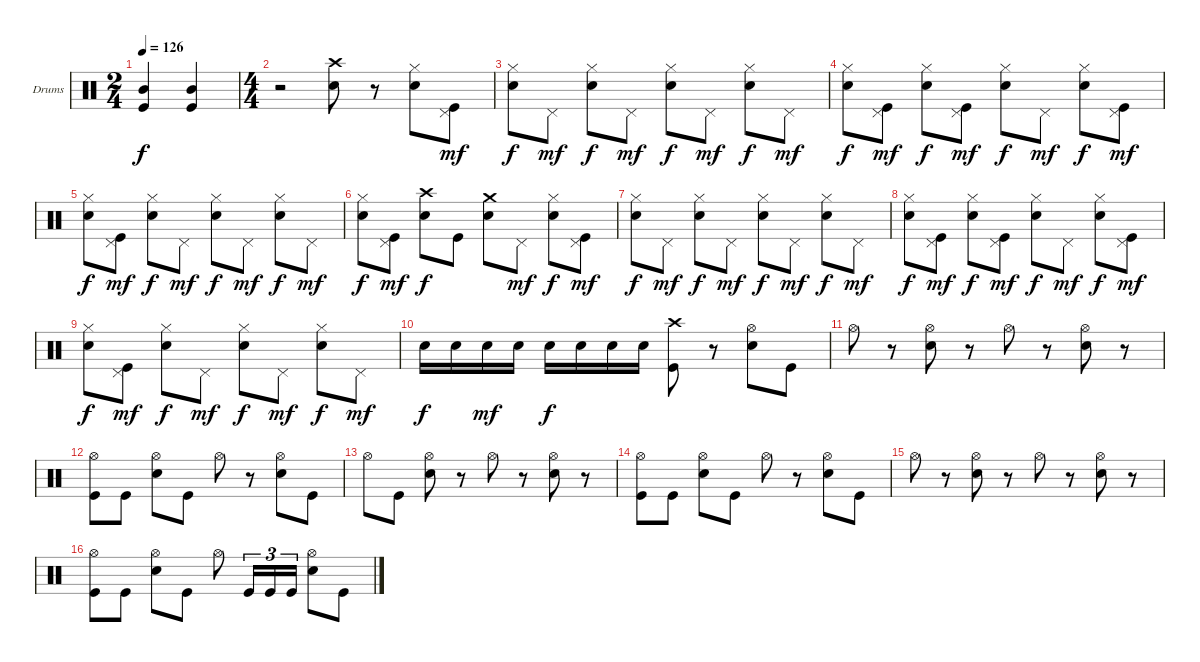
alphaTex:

\bracketExtendMode groupsimilarinstruments
\firstSystemTrackNameOrientation horizontal
\otherSystemsTrackNameOrientation horizontal
\track ("Drumkit" "Drums") {instrument percussion}
\staff {score}
\articulation defaults
\ts (2 4)
\beaming (8 2 2)
\tempo 126
\clef neutral
\ks c
("Kick (hit)" "Mid Tom (hit)").4{dy f} ("Kick (hit)" "Mid Tom (hit)").4 |
\ts (4 4)
\beaming (8 2 2 2 2)
r.2 ("Crash high (hit)" "Snare (hit) 2").8 r.8 ("Hi-Hat (closed)" "Snare (hit) 2").8 ("Pedal Hi-Hat (hit)" "Kick (hit)").8{dy mf} |
("Hi-Hat (closed)" "Snare (hit) 2").8{dy f} "Pedal Hi-Hat (hit)".8{dy mf} ("Hi-Hat (closed)" "Snare (hit) 2").8{dy f} "Pedal Hi-Hat (hit)".8{dy mf} ("Hi-Hat (closed)" "Snare (hit) 2").8{dy f} "Pedal Hi-Hat (hit)".8{dy mf} ("Hi-Hat (closed)" "Snare (hit) 2").8{dy f} "Pedal Hi-Hat (hit)".8{dy mf} |
("Hi-Hat (closed)" "Snare (hit) 2").8{dy f} ("Pedal Hi-Hat (hit)" "Kick (hit)").8{dy mf} ("Hi-Hat (closed)" "Snare (hit) 2").8{dy f} ("Pedal Hi-Hat (hit)" "Kick (hit)").8{dy mf} ("Hi-Hat (closed)" "Snare (hit) 2").8{dy f} "Pedal Hi-Hat (hit)".8{dy mf} ("Hi-Hat (closed)" "Snare (hit) 2").8{dy f} ("Pedal Hi-Hat (hit)" "Kick (hit)").8{dy mf} |
("Hi-Hat (closed)" "Snare (hit) 2").8{dy f} ("Pedal Hi-Hat (hit)" "Kick (hit)").8{dy mf} ("Hi-Hat (closed)" "Snare (hit) 2").8{dy f} "Pedal Hi-Hat (hit)".8{dy mf} ("Hi-Hat (closed)" "Snare (hit) 2").8{dy f} "Pedal Hi-Hat (hit)".8{dy mf} ("Hi-Hat (closed)" "Snare (hit) 2").8{dy f} "Pedal Hi-Hat (hit)".8{dy mf} |
("Hi-Hat (closed)" "Snare (hit) 2").8{dy f} ("Pedal Hi-Hat (hit)" "Kick (hit)").8{dy mf} ("Crash high (hit)" "Snare (hit) 2").8{dy f} "Kick (hit)".8 ("Crash medium (hit)" "Snare (hit) 2").8 "Pedal Hi-Hat (hit)".8{dy mf} ("Hi-Hat (closed)" "Snare (hit) 2").8{dy f} ("Pedal Hi-Hat (hit)" "Kick (hit)").8{dy mf} |
("Hi-Hat (closed)" "Snare (hit) 2").8{dy f} "Pedal Hi-Hat (hit)".8{dy mf} ("Hi-Hat (closed)" "Snare (hit) 2").8{dy f} "Pedal Hi-Hat (hit)".8{dy mf} ("Hi-Hat (closed)" "Snare (hit) 2").8{dy f} "Pedal Hi-Hat (hit)".8{dy mf} ("Hi-Hat (closed)" "Snare (hit) 2").8{dy f} "Pedal Hi-Hat (hit)".8{dy mf} |
("Hi-Hat (closed)" "Snare (hit) 2").8{dy f} ("Pedal Hi-Hat (hit)" "Kick (hit)").8{dy mf} ("Hi-Hat (closed)" "Snare (hit) 2").8{dy f} ("Pedal Hi-Hat (hit)" "Kick (hit)").8{dy mf} ("Hi-Hat (closed)" "Snare (hit) 2").8{dy f} "Pedal Hi-Hat (hit)".8{dy mf} ("Hi-Hat (closed)" "Snare (hit) 2").8{dy f} ("Pedal Hi-Hat (hit)" "Kick (hit)").8{dy mf} |
("Hi-Hat (closed)" "Snare (hit) 2").8{dy f} ("Pedal Hi-Hat (hit)" "Kick (hit)").8{dy mf} ("Hi-Hat (closed)" "Snare (hit) 2").8{dy f} "Pedal Hi-Hat (hit)".8{dy mf} ("Hi-Hat (closed)" "Snare (hit) 2").8{dy f} "Pedal Hi-Hat (hit)".8{dy mf} ("Hi-Hat (closed)" "Snare (hit) 2").8{dy f} "Pedal Hi-Hat (hit)".8{dy mf} |
"Snare (hit) 2".16{dy f} "Snare (hit) 2".16 "Snare (hit) 2".16{dy mf} "Snare (hit) 2".16 "Snare (hit) 2".16{dy f} "Snare (hit) 2".16 "Snare (hit) 2".16 "Snare (hit) 2".16 ("Crash high (hit)" "Kick (hit)").8 r.8 ("Hi-Hat (open)" "Snare (hit) 2").8 "Kick (hit)".8 |
"Hi-Hat (open)".8 r.8 ("Hi-Hat (open)" "Snare (hit) 2").8 r.8 "Hi-Hat (open)".8 r.8 ("Hi-Hat (open)" "Snare (hit) 2").8 r.8 |
("Hi-Hat (open)" "Kick (hit)").8 "Kick (hit)".8 ("Hi-Hat (open)" "Snare (hit) 2").8 "Kick (hit)".8 "Hi-Hat (open)".8 r.8 ("Hi-Hat (open)" "Snare (hit) 2").8 "Kick (hit)".8 |
"Hi-Hat (open)".8 "Kick (hit)".8 ("Hi-Hat (open)" "Snare (hit) 2").8 r.8 "Hi-Hat (open)".8 r.8 ("Hi-Hat (open)" "Snare (hit) 2").8 r.8 |
("Hi-Hat (open)" "Kick (hit)").8 "Kick (hit)".8 ("Hi-Hat (open)" "Snare (hit) 2").8 "Kick (hit)".8 "Hi-Hat (open)".8 r.8 ("Hi-Hat (open)" "Snare (hit) 2").8 "Kick (hit)".8 |
"Hi-Hat (open)".8 r.8 ("Hi-Hat (open)" "Snare (hit) 2").8 r.8 "Hi-Hat (open)".8 r.8 ("Hi-Hat (open)" "Snare (hit) 2").8 r.8 |
("Hi-Hat (open)" "Kick (hit)").8 "Kick (hit)".8 ("Hi-Hat (open)" "Snare (hit) 2").8 "Kick (hit)".8 "Hi-Hat (open)".8 "Kick (hit)".16{tu (3 2)} "Kick (hit)".16{tu (3 2)} "Kick (hit)".16{tu (3 2)} ("Hi-Hat (open)" "Snare (hit) 2").8 "Kick (hit)".8
